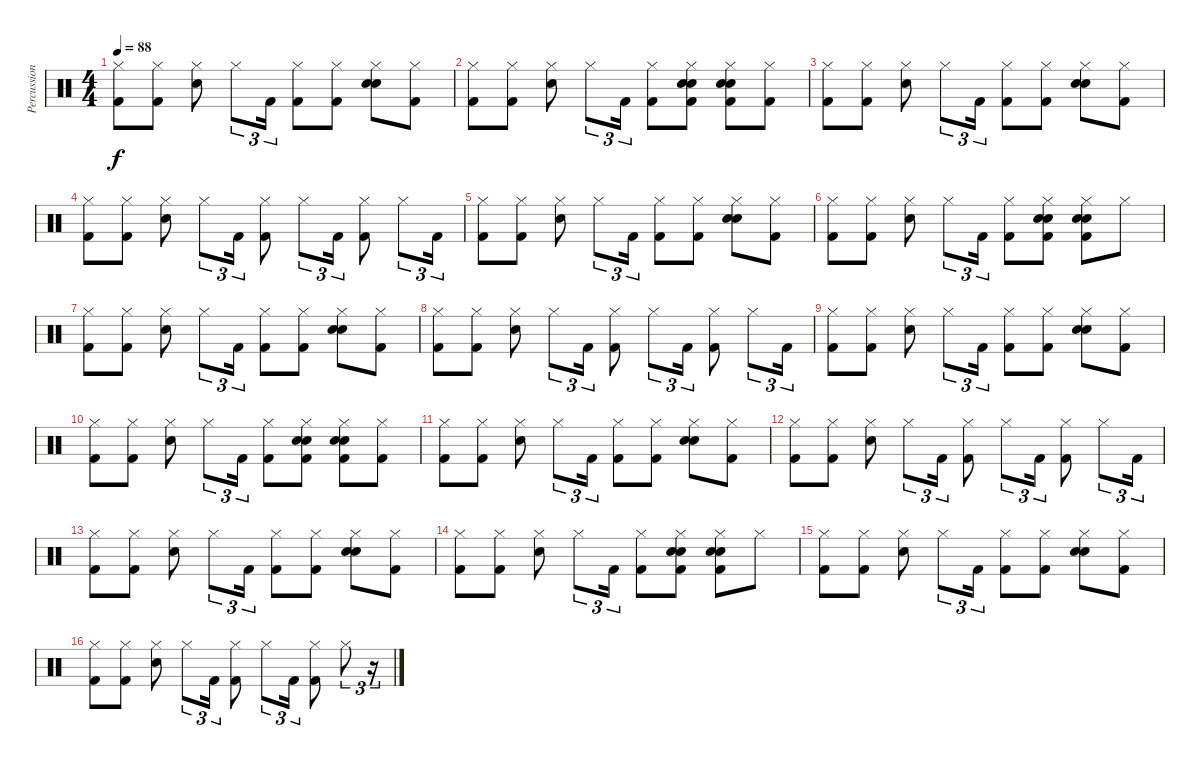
\track ("Percussion" "Percussion") {instrument percussion}
\staff {score}
\articulation defaults
\ts (4 4)
\tempo 88
\clef neutral
\ks c
("Hi-Hat (closed)" "Kick (hit) 2").8{dy f} ("Hi-Hat (closed)" "Kick (hit) 2").8 ("Hi-Hat (closed)" "Electric Snare (hit)").8 "Hi-Hat (closed)".8{tu (3 2)} "Kick (hit) 2".16{tu (3 2)} ("Hi-Hat (closed)" "Kick (hit) 2").8 ("Hi-Hat (closed)" "Kick (hit) 2").8 ("Hi-Hat (closed)" "Electric Snare (hit)" "Hand Clap (hit)").8 ("Hi-Hat (closed)" "Kick (hit) 2").8 |
("Hi-Hat (closed)" "Kick (hit) 2").8 ("Hi-Hat (closed)" "Kick (hit) 2").8 ("Hi-Hat (closed)" "Electric Snare (hit)").8 "Hi-Hat (closed)".8{tu (3 2)} "Kick (hit) 2".16{tu (3 2)} ("Hi-Hat (closed)" "Kick (hit) 2").8 ("Hi-Hat (closed)" "Electric Snare (hit)" "Hand Clap (hit)" "Kick (hit) 2").8 ("Hi-Hat (closed)" "Electric Snare (hit)" "Hand Clap (hit)" "Kick (hit) 2").8 ("Hi-Hat (closed)" "Kick (hit) 2").8 |
("Hi-Hat (closed)" "Kick (hit) 2").8 ("Hi-Hat (closed)" "Kick (hit) 2").8 ("Hi-Hat (closed)" "Electric Snare (hit)").8 "Hi-Hat (closed)".8{tu (3 2)} "Kick (hit) 2".16{tu (3 2)} ("Hi-Hat (closed)" "Kick (hit) 2").8 ("Hi-Hat (closed)" "Kick (hit) 2").8 ("Hi-Hat (closed)" "Electric Snare (hit)" "Hand Clap (hit)").8 ("Hi-Hat (closed)" "Kick (hit) 2").8 |
("Hi-Hat (closed)" "Kick (hit) 2").8 ("Hi-Hat (closed)" "Kick (hit) 2").8 ("Hi-Hat (closed)" "Electric Snare (hit)").8 "Hi-Hat (closed)".8{tu (3 2)} "Kick (hit) 2".16{tu (3 2)} ("Hi-Hat (closed)" "Kick (hit) 2").8 "Hi-Hat (closed)".8{tu (3 2)} "Kick (hit) 2".16{tu (3 2)} ("Hi-Hat (closed)" "Kick (hit) 2").8 "Hi-Hat (closed)".8{tu (3 2)} "Kick (hit) 2".16{tu (3 2)} |
("Hi-Hat (closed)" "Kick (hit) 2").8 ("Hi-Hat (closed)" "Kick (hit) 2").8 ("Hi-Hat (closed)" "Electric Snare (hit)").8 "Hi-Hat (closed)".8{tu (3 2)} "Kick (hit) 2".16{tu (3 2)} ("Hi-Hat (closed)" "Kick (hit) 2").8 ("Hi-Hat (closed)" "Kick (hit) 2").8 ("Hi-Hat (closed)" "Electric Snare (hit)" "Hand Clap (hit)").8 ("Hi-Hat (closed)" "Kick (hit) 2").8 |
("Hi-Hat (closed)" "Kick (hit) 2").8 ("Hi-Hat (closed)" "Kick (hit) 2").8 ("Hi-Hat (closed)" "Electric Snare (hit)").8 "Hi-Hat (closed)".8{tu (3 2)} "Kick (hit) 2".16{tu (3 2)} ("Hi-Hat (closed)" "Kick (hit) 2").8 ("Hi-Hat (closed)" "Electric Snare (hit)" "Hand Clap (hit)" "Kick (hit) 2").8 ("Hi-Hat (closed)" "Electric Snare (hit)" "Hand Clap (hit)" "Kick (hit) 2").8 "Hi-Hat (closed)".8 |
("Hi-Hat (closed)" "Kick (hit) 2").8 ("Hi-Hat (closed)" "Kick (hit) 2").8 ("Hi-Hat (closed)" "Electric Snare (hit)").8 "Hi-Hat (closed)".8{tu (3 2)} "Kick (hit) 2".16{tu (3 2)} ("Hi-Hat (closed)" "Kick (hit) 2").8 ("Hi-Hat (closed)" "Kick (hit) 2").8 ("Hi-Hat (closed)" "Electric Snare (hit)" "Hand Clap (hit)").8 ("Hi-Hat (closed)" "Kick (hit) 2").8 |
("Hi-Hat (closed)" "Kick (hit) 2").8 ("Hi-Hat (closed)" "Kick (hit) 2").8 ("Hi-Hat (closed)" "Electric Snare (hit)").8 "Hi-Hat (closed)".8{tu (3 2)} "Kick (hit) 2".16{tu (3 2)} ("Hi-Hat (closed)" "Kick (hit) 2").8 "Hi-Hat (closed)".8{tu (3 2)} "Kick (hit) 2".16{tu (3 2)} ("Hi-Hat (closed)" "Kick (hit) 2").8 "Hi-Hat (closed)".8{tu (3 2)} "Kick (hit) 2".16{tu (3 2)} |
("Hi-Hat (closed)" "Kick (hit) 2").8 ("Hi-Hat (closed)" "Kick (hit) 2").8 ("Hi-Hat (closed)" "Electric Snare (hit)").8 "Hi-Hat (closed)".8{tu (3 2)} "Kick (hit) 2".16{tu (3 2)} ("Hi-Hat (closed)" "Kick (hit) 2").8 ("Hi-Hat (closed)" "Kick (hit) 2").8 ("Hi-Hat (closed)" "Electric Snare (hit)" "Hand Clap (hit)").8 ("Hi-Hat (closed)" "Kick (hit) 2").8 |
("Hi-Hat (closed)" "Kick (hit) 2").8 ("Hi-Hat (closed)" "Kick (hit) 2").8 ("Hi-Hat (closed)" "Electric Snare (hit)").8 "Hi-Hat (closed)".8{tu (3 2)} "Kick (hit) 2".16{tu (3 2)} ("Hi-Hat (closed)" "Kick (hit) 2").8 ("Hi-Hat (closed)" "Electric Snare (hit)" "Hand Clap (hit)" "Kick (hit) 2").8 ("Hi-Hat (closed)" "Electric Snare (hit)" "Hand Clap (hit)" "Kick (hit) 2").8 ("Hi-Hat (closed)" "Kick (hit) 2").8 |
("Hi-Hat (closed)" "Kick (hit) 2").8 ("Hi-Hat (closed)" "Kick (hit) 2").8 ("Hi-Hat (closed)" "Electric Snare (hit)").8 "Hi-Hat (closed)".8{tu (3 2)} "Kick (hit) 2".16{tu (3 2)} ("Hi-Hat (closed)" "Kick (hit) 2").8 ("Hi-Hat (closed)" "Kick (hit) 2").8 ("Hi-Hat (closed)" "Electric Snare (hit)" "Hand Clap (hit)").8 ("Hi-Hat (closed)" "Kick (hit) 2").8 |
("Hi-Hat (closed)" "Kick (hit) 2").8 ("Hi-Hat (closed)" "Kick (hit) 2").8 ("Hi-Hat (closed)" "Electric Snare (hit)").8 "Hi-Hat (closed)".8{tu (3 2)} "Kick (hit) 2".16{tu (3 2)} ("Hi-Hat (closed)" "Kick (hit) 2").8 "Hi-Hat (closed)".8{tu (3 2)} "Kick (hit) 2".16{tu (3 2)} ("Hi-Hat (closed)" "Kick (hit) 2").8 "Hi-Hat (closed)".8{tu (3 2)} "Kick (hit) 2".16{tu (3 2)} |
("Hi-Hat (closed)" "Kick (hit) 2").8 ("Hi-Hat (closed)" "Kick (hit) 2").8 ("Hi-Hat (closed)" "Electric Snare (hit)").8 "Hi-Hat (closed)".8{tu (3 2)} "Kick (hit) 2".16{tu (3 2)} ("Hi-Hat (closed)" "Kick (hit) 2").8 ("Hi-Hat (closed)" "Kick (hit) 2").8 ("Hi-Hat (closed)" "Electric Snare (hit)" "Hand Clap (hit)").8 ("Hi-Hat (closed)" "Kick (hit) 2").8 |
("Hi-Hat (closed)" "Kick (hit) 2").8 ("Hi-Hat (closed)" "Kick (hit) 2").8 ("Hi-Hat (closed)" "Electric Snare (hit)").8 "Hi-Hat (closed)".8{tu (3 2)} "Kick (hit) 2".16{tu (3 2)} ("Hi-Hat (closed)" "Kick (hit) 2").8 ("Hi-Hat (closed)" "Electric Snare (hit)" "Hand Clap (hit)" "Kick (hit) 2").8 ("Hi-Hat (closed)" "Electric Snare (hit)" "Hand Clap (hit)" "Kick (hit) 2").8 "Hi-Hat (closed)".8 |
("Hi-Hat (closed)" "Kick (hit) 2").8 ("Hi-Hat (closed)" "Kick (hit) 2").8 ("Hi-Hat (closed)" "Electric Snare (hit)").8 "Hi-Hat (closed)".8{tu (3 2)} "Kick (hit) 2".16{tu (3 2)} ("Hi-Hat (closed)" "Kick (hit) 2").8 ("Hi-Hat (closed)" "Kick (hit) 2").8 ("Hi-Hat (closed)" "Electric Snare (hit)" "Hand Clap (hit)").8 ("Hi-Hat (closed)" "Kick (hit) 2").8 |
("Hi-Hat (closed)" "Kick (hit) 2").8 ("Hi-Hat (closed)" "Kick (hit) 2").8 ("Hi-Hat (closed)" "Electric Snare (hit)").8 "Hi-Hat (closed)".8{tu (3 2)} "Kick (hit) 2".16{tu (3 2)} ("Hi-Hat (closed)" "Kick (hit) 2").8 "Hi-Hat (closed)".8{tu (3 2)} "Kick (hit) 2".16{tu (3 2)} ("Hi-Hat (closed)" "Kick (hit) 2").8 "Hi-Hat (closed)".8{tu (3 2)} r.16{tu (3 2)}
